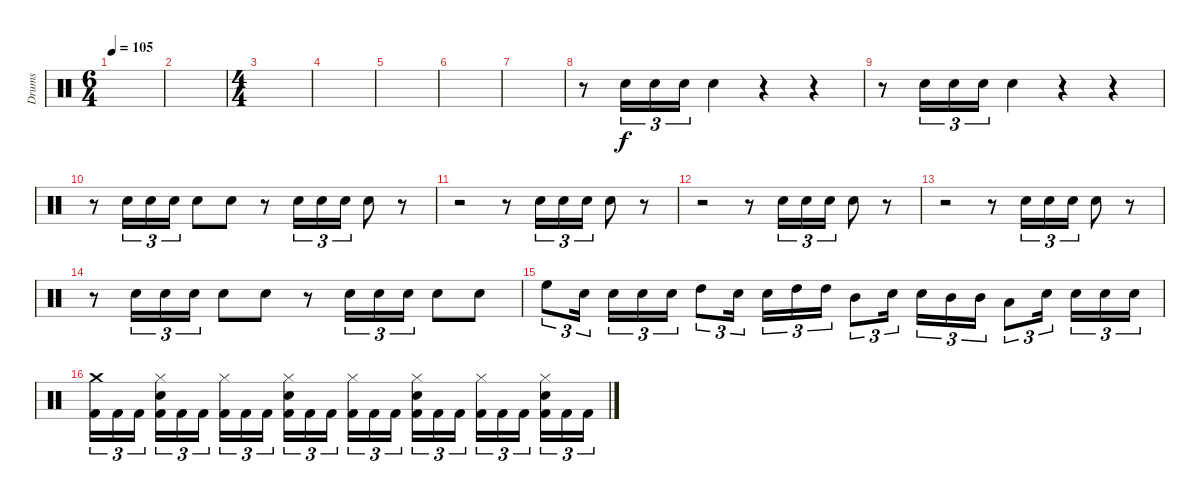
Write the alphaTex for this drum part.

\track ("Drums" "Drums") {instrument percussion}
\staff {score}
\articulation defaults
\ts (6 4)
\tempo 105
\clef neutral
\ks c
|
|
\ts (4 4)
|
|
|
|
|
r.8 "Electric Snare (hit)".16{tu (3 2)} "Electric Snare (hit)".16{tu (3 2)} "Electric Snare (hit)".16{tu (3 2)} "Electric Snare (hit)".4 r.4 r.4 |
r.8 "Electric Snare (hit)".16{tu (3 2)} "Electric Snare (hit)".16{tu (3 2)} "Electric Snare (hit)".16{tu (3 2)} "Electric Snare (hit)".4 r.4 r.4 |
r.8 "Electric Snare (hit)".16{tu (3 2)} "Electric Snare (hit)".16{tu (3 2)} "Electric Snare (hit)".16{tu (3 2)} "Electric Snare (hit)".8 "Electric Snare (hit)".8 r.8 "Electric Snare (hit)".16{tu (3 2)} "Electric Snare (hit)".16{tu (3 2)} "Electric Snare (hit)".16{tu (3 2)} "Electric Snare (hit)".8 r.8 |
r.2 r.8 "Electric Snare (hit)".16{tu (3 2)} "Electric Snare (hit)".16{tu (3 2)} "Electric Snare (hit)".16{tu (3 2)} "Electric Snare (hit)".8 r.8 |
r.2 r.8 "Electric Snare (hit)".16{tu (3 2)} "Electric Snare (hit)".16{tu (3 2)} "Electric Snare (hit)".16{tu (3 2)} "Electric Snare (hit)".8 r.8 |
r.2 r.8 "Electric Snare (hit)".16{tu (3 2)} "Electric Snare (hit)".16{tu (3 2)} "Electric Snare (hit)".16{tu (3 2)} "Electric Snare (hit)".8 r.8 |
r.8 "Electric Snare (hit)".16{tu (3 2)} "Electric Snare (hit)".16{tu (3 2)} "Electric Snare (hit)".16{tu (3 2)} "Electric Snare (hit)".8 "Electric Snare (hit)".8 r.8 "Electric Snare (hit)".16{tu (3 2)} "Electric Snare (hit)".16{tu (3 2)} "Electric Snare (hit)".16{tu (3 2)} "Electric Snare (hit)".8 "Electric Snare (hit)".8 |
"High Floor Tom (hit)".8{tu (3 2)} "Electric Snare (hit)".16{tu (3 2)} "Electric Snare (hit)".16{tu (3 2)} "Electric Snare (hit)".16{tu (3 2)} "Electric Snare (hit)".16{tu (3 2)} "High Tom (hit)".8{tu (3 2)} "Electric Snare (hit)".16{tu (3 2)} "Electric Snare (hit)".16{tu (3 2)} "High Tom (hit)".16{tu (3 2)} "High Tom (hit)".16{tu (3 2)} "Mid Tom (hit)".8{tu (3 2)} "Electric Snare (hit)".16{tu (3 2)} "Electric Snare (hit)".16{tu (3 2)} "Mid Tom (hit)".16{tu (3 2)} "Mid Tom (hit)".16{tu (3 2)} "Low Tom (hit)".8{tu (3 2)} "Electric Snare (hit)".16{tu (3 2)} "Electric Snare (hit)".16{tu (3 2)} "Electric Snare (hit)".16{tu (3 2)} "Electric Snare (hit)".16{tu (3 2)} |
("Crash medium (hit)" "Kick (hit) 2").16{tu (3 2)} "Kick (hit) 2".16{tu (3 2)} "Kick (hit) 2".16{tu (3 2)} ("Hi-Hat (closed)" "Electric Snare (hit)" "Kick (hit) 2").16{tu (3 2)} "Kick (hit) 2".16{tu (3 2)} "Kick (hit) 2".16{tu (3 2)} ("Hi-Hat (closed)" "Kick (hit) 2").16{tu (3 2)} "Kick (hit) 2".16{tu (3 2)} "Kick (hit) 2".16{tu (3 2)} ("Hi-Hat (closed)" "Electric Snare (hit)" "Kick (hit) 2").16{tu (3 2)} "Kick (hit) 2".16{tu (3 2)} "Kick (hit) 2".16{tu (3 2)} ("Hi-Hat (closed)" "Kick (hit) 2").16{tu (3 2)} "Kick (hit) 2".16{tu (3 2)} "Kick (hit) 2".16{tu (3 2)} ("Hi-Hat (closed)" "Electric Snare (hit)" "Kick (hit) 2").16{tu (3 2)} "Kick (hit) 2".16{tu (3 2)} "Kick (hit) 2".16{tu (3 2)} ("Hi-Hat (closed)" "Kick (hit) 2").16{tu (3 2)} "Kick (hit) 2".16{tu (3 2)} "Kick (hit) 2".16{tu (3 2)} ("Hi-Hat (closed)" "Electric Snare (hit)" "Kick (hit) 2").16{tu (3 2)} "Kick (hit) 2".16{tu (3 2)} "Kick (hit) 2".16{tu (3 2)}
